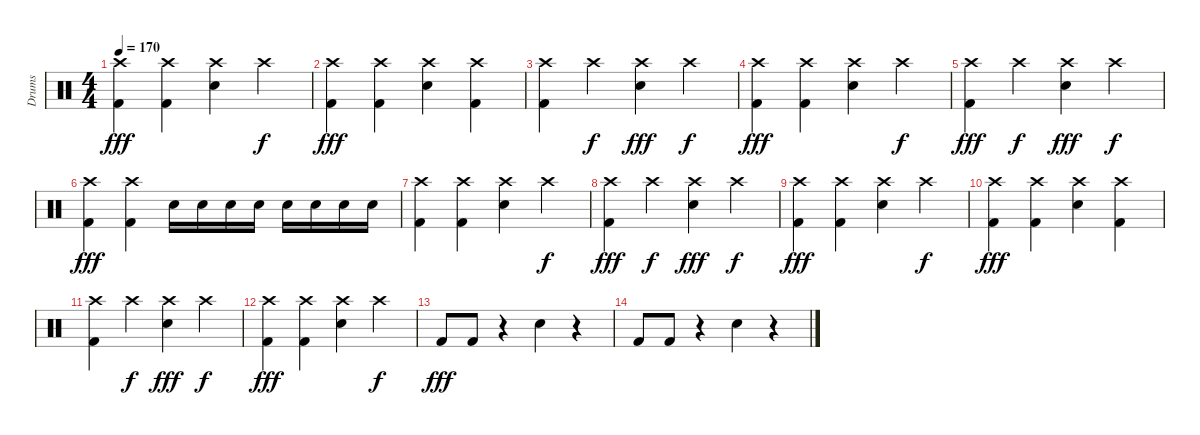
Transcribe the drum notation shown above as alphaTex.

\track ("Drums" "Drums") {instrument percussion}
\staff {score}
\articulation defaults
\ts (4 4)
\tempo 170
\clef neutral
\ks c
("Crash high (hit)" "Kick (hit) 2").4{dy fff} ("Crash high (hit)" "Kick (hit) 2").4 ("Crash high (hit)" "Electric Snare (hit)").4 "Crash high (hit)".4{dy f} |
("Crash high (hit)" "Kick (hit) 2").4{dy fff} ("Crash high (hit)" "Kick (hit) 2").4 ("Crash high (hit)" "Electric Snare (hit)").4 ("Crash high (hit)" "Kick (hit) 2").4 |
("Crash high (hit)" "Kick (hit) 2").4 "Crash high (hit)".4{dy f} ("Crash high (hit)" "Electric Snare (hit)").4{dy fff} "Crash high (hit)".4{dy f} |
("Crash high (hit)" "Kick (hit) 2").4{dy fff} ("Crash high (hit)" "Kick (hit) 2").4 ("Crash high (hit)" "Electric Snare (hit)").4 "Crash high (hit)".4{dy f} |
("Crash high (hit)" "Kick (hit) 2").4{dy fff} "Crash high (hit)".4{dy f} ("Crash high (hit)" "Electric Snare (hit)").4{dy fff} "Crash high (hit)".4{dy f} |
("Crash high (hit)" "Kick (hit) 2").4{dy fff} ("Crash high (hit)" "Kick (hit) 2").4 "Electric Snare (hit)".16 "Electric Snare (hit)".16 "Electric Snare (hit)".16 "Electric Snare (hit)".16 "Electric Snare (hit)".16 "Electric Snare (hit)".16 "Electric Snare (hit)".16 "Electric Snare (hit)".16 |
("Crash high (hit)" "Kick (hit) 2").4 ("Crash high (hit)" "Kick (hit) 2").4 ("Crash high (hit)" "Electric Snare (hit)").4 "Crash high (hit)".4{dy f} |
("Crash high (hit)" "Kick (hit) 2").4{dy fff} "Crash high (hit)".4{dy f} ("Crash high (hit)" "Electric Snare (hit)").4{dy fff} "Crash high (hit)".4{dy f} |
("Crash high (hit)" "Kick (hit) 2").4{dy fff} ("Crash high (hit)" "Kick (hit) 2").4 ("Crash high (hit)" "Electric Snare (hit)").4 "Crash high (hit)".4{dy f} |
("Crash high (hit)" "Kick (hit) 2").4{dy fff} ("Crash high (hit)" "Kick (hit) 2").4 ("Crash high (hit)" "Electric Snare (hit)").4 ("Crash high (hit)" "Kick (hit) 2").4 |
("Crash high (hit)" "Kick (hit) 2").4 "Crash high (hit)".4{dy f} ("Crash high (hit)" "Electric Snare (hit)").4{dy fff} "Crash high (hit)".4{dy f} |
("Crash high (hit)" "Kick (hit) 2").4{dy fff} ("Crash high (hit)" "Kick (hit) 2").4 ("Crash high (hit)" "Electric Snare (hit)").4 "Crash high (hit)".4{dy f} |
"Kick (hit) 2".8{dy fff} "Kick (hit) 2".8 r.4 "Electric Snare (hit)".4 r.4 |
"Kick (hit) 2".8 "Kick (hit) 2".8 r.4 "Electric Snare (hit)".4 r.4
